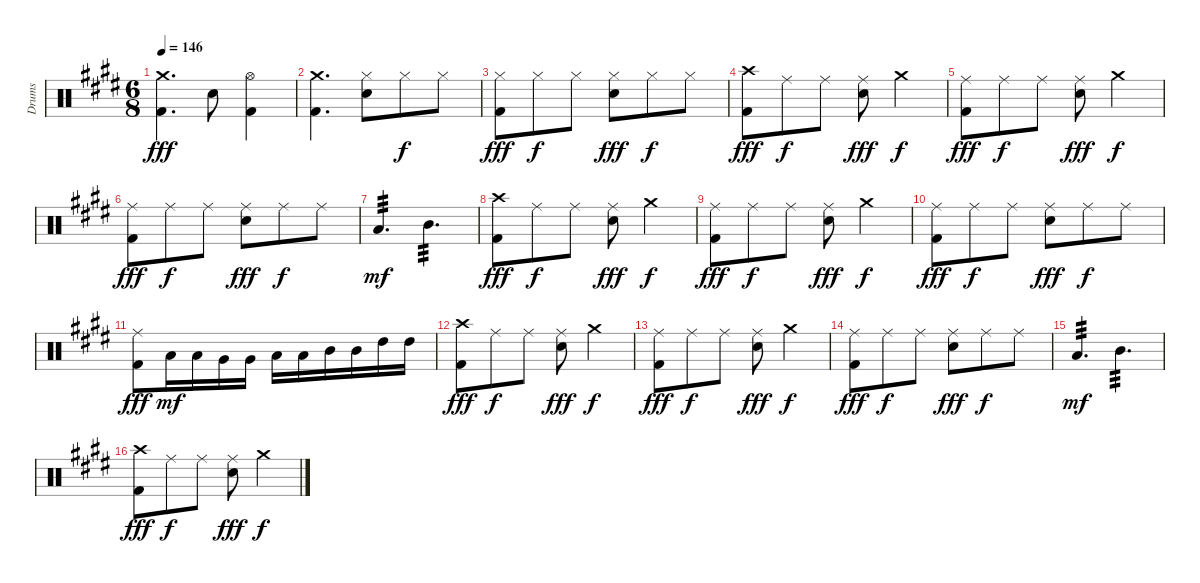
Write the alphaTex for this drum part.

\track ("Drums" "Drums") {instrument percussion}
\staff {score}
\articulation defaults
\ts (6 8)
\tempo 146
\clef neutral
\ks e
("Crash medium (hit)" "Kick (hit) 2").4{d dy fff} "Snare (hit) 2".8 ("Hi-Hat (open)" "Kick (hit) 2").4 |
("Crash medium (hit)" "Kick (hit) 2").4{d} ("Hi-Hat (closed)" "Snare (hit) 2").8 "Hi-Hat (closed)".8{dy f} "Hi-Hat (closed)".8 |
("Hi-Hat (closed)" "Kick (hit) 2").8{dy fff} "Hi-Hat (closed)".8{dy f} "Hi-Hat (closed)".8 ("Hi-Hat (closed)" "Snare (hit) 2").8{dy fff} "Hi-Hat (closed)".8{dy f} "Hi-Hat (closed)".8 |
("Crash high (hit)" "Kick (hit) 2").8{dy fff} "Ride (middle)".8{dy f} "Ride (middle)".8 ("Ride (middle)" "Snare (hit) 2").8{dy fff} "Crash medium (hit)".4{dy f} |
("Ride (middle)" "Kick (hit) 2").8{dy fff} "Ride (middle)".8{dy f} "Ride (middle)".8 ("Ride (middle)" "Snare (hit) 2").8{dy fff} "Crash medium (hit)".4{dy f} |
("Ride (middle)" "Kick (hit) 2").8{dy fff} "Ride (middle)".8{dy f} "Ride (middle)".8 ("Ride (middle)" "Snare (hit) 2").8{dy fff} "Ride (middle)".8{dy f} "Ride (middle)".8 |
"Low Tom (hit)".4{d tp 3 dy mf} "Mid Tom (hit)".4{d tp 3} |
("Crash high (hit)" "Kick (hit) 2").8{dy fff} "Ride (middle)".8{dy f} "Ride (middle)".8 ("Ride (middle)" "Snare (hit) 2").8{dy fff} "Crash medium (hit)".4{dy f} |
("Ride (middle)" "Kick (hit) 2").8{dy fff} "Ride (middle)".8{dy f} "Ride (middle)".8 ("Ride (middle)" "Snare (hit) 2").8{dy fff} "Crash medium (hit)".4{dy f} |
("Ride (middle)" "Kick (hit) 2").8{dy fff} "Ride (middle)".8{dy f} "Ride (middle)".8 ("Ride (middle)" "Snare (hit) 2").8{dy fff} "Ride (middle)".8{dy f} "Ride (middle)".8 |
("Ride (middle)" "Kick (hit) 2").8{dy fff} "Low Floor Tom (hit)".16{dy mf} "Low Floor Tom (hit)".16 "Very Low Tom (hit)".16 "Very Low Tom (hit)".16 "Low Tom (hit)".16 "Low Tom (hit)".16 "Mid Tom (hit)".16 "Mid Tom (hit)".16 "High Tom (hit)".16 "High Tom (hit)".16 |
("Crash high (hit)" "Kick (hit) 2").8{dy fff} "Ride (middle)".8{dy f} "Ride (middle)".8 ("Ride (middle)" "Snare (hit) 2").8{dy fff} "Crash medium (hit)".4{dy f} |
("Ride (middle)" "Kick (hit) 2").8{dy fff} "Ride (middle)".8{dy f} "Ride (middle)".8 ("Ride (middle)" "Snare (hit) 2").8{dy fff} "Crash medium (hit)".4{dy f} |
("Ride (middle)" "Kick (hit) 2").8{dy fff} "Ride (middle)".8{dy f} "Ride (middle)".8 ("Ride (middle)" "Snare (hit) 2").8{dy fff} "Ride (middle)".8{dy f} "Ride (middle)".8 |
"Low Tom (hit)".4{d tp 3 dy mf} "Mid Tom (hit)".4{d tp 3} |
("Crash high (hit)" "Kick (hit) 2").8{dy fff} "Ride (middle)".8{dy f} "Ride (middle)".8 ("Ride (middle)" "Snare (hit) 2").8{dy fff} "Crash medium (hit)".4{dy f}
